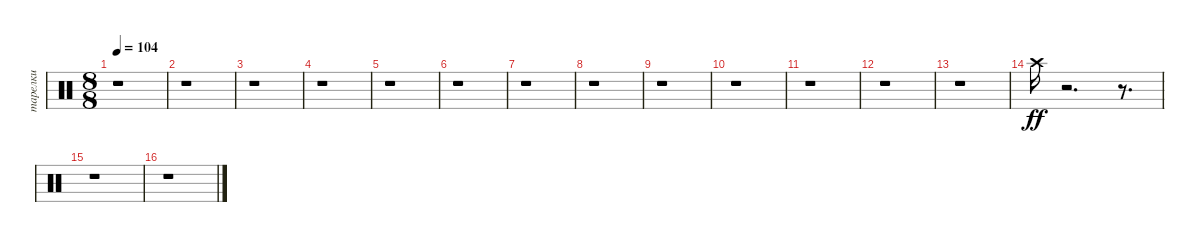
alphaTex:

\track ("тарелки" "тарелки") {instrument percussion}
\staff {score}
\articulation defaults
\ts (8 8)
\tempo 104
\clef neutral
\ks c
r.1{dy ff} |
r.1 |
r.1 |
r.1 |
r.1 |
r.1 |
r.1 |
r.1 |
r.1 |
r.1 |
r.1 |
r.1 |
r.1 |
"Crash high (hit)".16 r.2{d} r.8{d} |
r.1 |
r.1
